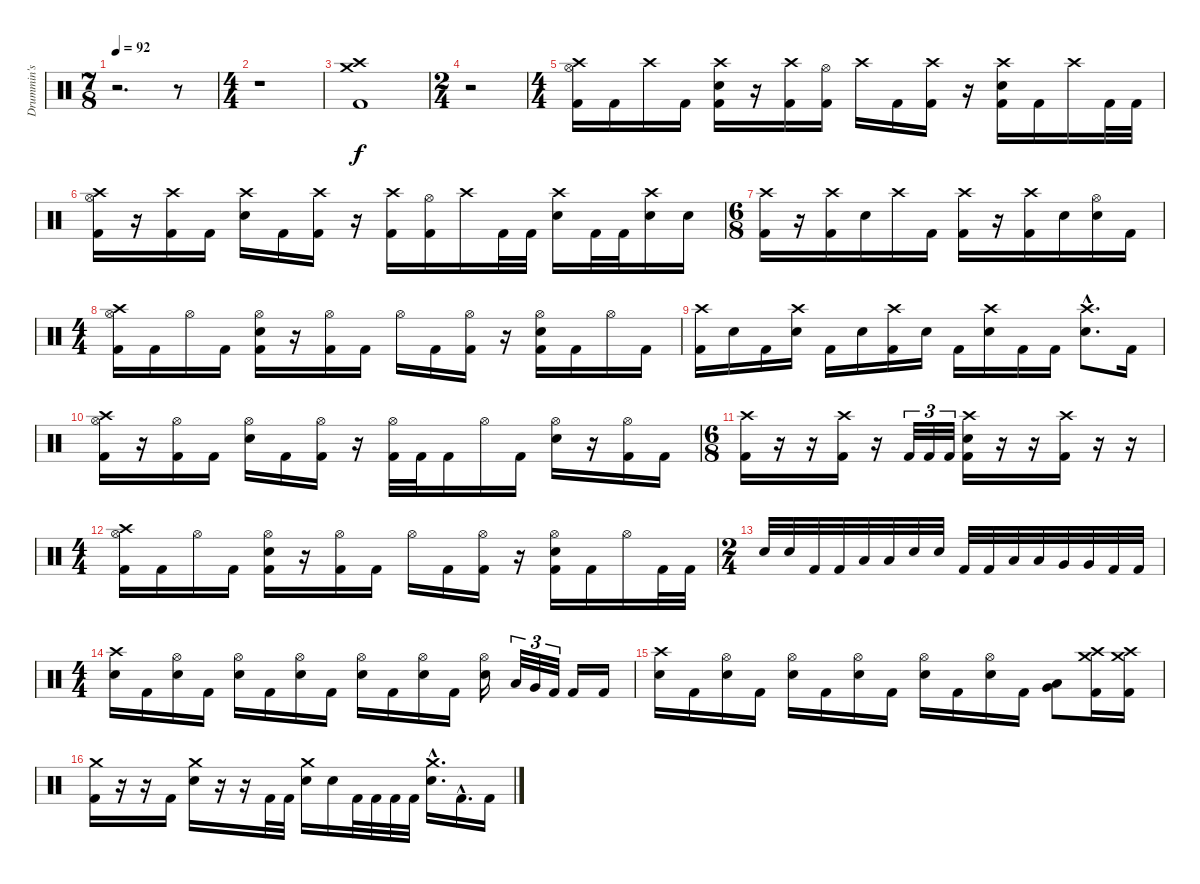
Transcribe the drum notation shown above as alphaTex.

\track ("Drummin's" "Drummin's") {instrument percussion}
\staff {score}
\articulation defaults
\ts (7 8)
\tempo 92
\clef neutral
\ks c
r.2{d dy f} r.8 |
\ts (4 4)
r.1 |
("Crash high (hit)" "Crash medium (hit)" "Kick (hit) 2").1 |
\ts (2 4)
r.2 |
\ts (4 4)
("Crash high (hit)" "Hi-Hat (open)" "Kick (hit) 2").16 "Kick (hit) 2".16 "Crash high (hit)".16 "Kick (hit) 2".16 ("Crash high (hit)" "Snare (hit) 2" "Kick (hit) 2").16 r.16 ("Crash high (hit)" "Kick (hit) 2").16 ("Hi-Hat (open)" "Kick (hit) 2").16 "Crash high (hit)".16 "Kick (hit) 2".16 ("Crash high (hit)" "Kick (hit) 2").16 r.16 ("Crash high (hit)" "Snare (hit) 2" "Kick (hit) 2").16 "Kick (hit) 2".16 "Crash high (hit)".16 "Kick (hit) 2".32 "Kick (hit) 2".32 |
("Crash high (hit)" "Hi-Hat (open)" "Kick (hit) 2").16 r.16 ("Crash high (hit)" "Kick (hit) 2").16 "Kick (hit) 2".16 ("Crash high (hit)" "Snare (hit) 2").16 "Kick (hit) 2".16 ("Crash high (hit)" "Kick (hit) 2").16 r.16 ("Crash high (hit)" "Kick (hit) 2").16 ("Hi-Hat (open)" "Kick (hit) 2").16 "Crash high (hit)".16 "Kick (hit) 2".32 "Kick (hit) 2".32 ("Crash high (hit)" "Snare (hit) 2").16 "Kick (hit) 2".32 "Kick (hit) 2".32 ("Crash high (hit)" "Snare (hit) 2").16 "Snare (hit) 2".16 |
\ts (6 8)
("Crash high (hit)" "Kick (hit) 2").16 r.16 ("Crash high (hit)" "Kick (hit) 2").16 "Snare (hit) 2".16 "Crash high (hit)".16 "Kick (hit) 2".16 ("Crash high (hit)" "Kick (hit) 2").16 r.16 ("Crash high (hit)" "Kick (hit) 2").16 "Snare (hit) 2".16 ("Hi-Hat (open)" "Snare (hit) 2").16 "Kick (hit) 2".16 |
\ts (4 4)
("Crash high (hit)" "Hi-Hat (open)" "Kick (hit) 2").16 "Kick (hit) 2".16 "Hi-Hat (open)".16 "Kick (hit) 2".16 ("Hi-Hat (open)" "Snare (hit) 2" "Kick (hit) 2").16 r.16 ("Hi-Hat (open)" "Kick (hit) 2").16 "Kick (hit) 2".16 "Hi-Hat (open)".16 "Kick (hit) 2".16 ("Hi-Hat (open)" "Kick (hit) 2").16 r.16 ("Hi-Hat (open)" "Snare (hit) 2" "Kick (hit) 2").16 "Kick (hit) 2".16 "Hi-Hat (open)".16 "Kick (hit) 2".16 |
("Crash high (hit)" "Kick (hit) 2").16 "Snare (hit) 2".16 "Kick (hit) 2".16 ("Crash high (hit)" "Snare (hit) 2").16 "Kick (hit) 2".16 "Snare (hit) 2".16 ("Crash high (hit)" "Kick (hit) 2").16 "Snare (hit) 2".16 "Kick (hit) 2".16 ("Crash high (hit)" "Snare (hit) 2").16 "Kick (hit) 2".16 "Kick (hit) 2".16 ("Crash high (hit)"{hac} "Snare (hit) 2"{hac}).8{d} "Kick (hit) 2".16 |
("Crash high (hit)" "Hi-Hat (open)" "Kick (hit) 2").16 r.16 ("Hi-Hat (open)" "Kick (hit) 2").16 "Kick (hit) 2".16 ("Hi-Hat (open)" "Snare (hit) 2").16 "Kick (hit) 2".16 ("Hi-Hat (open)" "Kick (hit) 2").16 r.16 ("Hi-Hat (open)" "Kick (hit) 2").32 "Kick (hit) 2".32 "Kick (hit) 2".16 "Hi-Hat (open)".16 "Kick (hit) 2".16 ("Hi-Hat (open)" "Snare (hit) 2").16 r.16 ("Hi-Hat (open)" "Kick (hit) 2").16 "Kick (hit) 2".16 |
\ts (6 8)
("Crash high (hit)" "Kick (hit) 2").16 r.16 r.16 ("Crash high (hit)" "Kick (hit) 2").16 r.16 "Kick (hit) 2".32{tu (3 2)} "Kick (hit) 2".32{tu (3 2)} "Kick (hit) 2".32{tu (3 2)} ("Crash high (hit)" "Snare (hit) 2" "Kick (hit) 2").16 r.16 r.16 ("Crash high (hit)" "Kick (hit) 2").16 r.16 r.16 |
\ts (4 4)
("Crash high (hit)" "Hi-Hat (open)" "Kick (hit) 2").16 "Kick (hit) 2".16 "Hi-Hat (open)".16 "Kick (hit) 2".16 ("Hi-Hat (open)" "Snare (hit) 2" "Kick (hit) 2").16 r.16 ("Hi-Hat (open)" "Kick (hit) 2").16 "Kick (hit) 2".16 "Hi-Hat (open)".16 "Kick (hit) 2".16 ("Hi-Hat (open)" "Kick (hit) 2").16 r.16 ("Hi-Hat (open)" "Snare (hit) 2" "Kick (hit) 2").16 "Kick (hit) 2".16 "Hi-Hat (open)".16 "Kick (hit) 2".32 "Kick (hit) 2".32 |
\ts (2 4)
"Snare (hit) 2".32 "Snare (hit) 2".32 "Kick (hit) 2".32 "Kick (hit) 2".32 "Low Tom (hit)".32 "Low Tom (hit)".32 "Snare (hit) 2".32 "Snare (hit) 2".32 "Kick (hit) 2".32 "Kick (hit) 2".32 "Low Tom (hit)".32 "Low Tom (hit)".32 "Very Low Tom (hit)".32 "Very Low Tom (hit)".32 "Kick (hit) 2".32 "Kick (hit) 2".32 |
\ts (4 4)
("Crash high (hit)" "Snare (hit) 2").16 "Kick (hit) 2".16 ("Hi-Hat (open)" "Snare (hit) 2").16 "Kick (hit) 2".16 ("Hi-Hat (open)" "Snare (hit) 2").16 "Kick (hit) 2".16 ("Hi-Hat (open)" "Snare (hit) 2").16 "Kick (hit) 2".16 ("Hi-Hat (open)" "Snare (hit) 2").16 "Kick (hit) 2".16 ("Hi-Hat (open)" "Snare (hit) 2").16 "Kick (hit) 2".16 ("Hi-Hat (open)" "Snare (hit) 2").16 "Low Tom (hit)".32{tu (3 2)} "Very Low Tom (hit)".32{tu (3 2)} "Kick (hit) 2".32{tu (3 2)} "Kick (hit) 2".16 "Kick (hit) 2".16 |
("Crash high (hit)" "Snare (hit) 2").16 "Kick (hit) 2".16 ("Hi-Hat (open)" "Snare (hit) 2").16 "Kick (hit) 2".16 ("Hi-Hat (open)" "Snare (hit) 2").16 "Kick (hit) 2".16 ("Hi-Hat (open)" "Snare (hit) 2").16 "Kick (hit) 2".16 ("Hi-Hat (open)" "Snare (hit) 2").16 "Kick (hit) 2".16 ("Hi-Hat (open)" "Snare (hit) 2").16 "Kick (hit) 2".16 ("Very Low Tom (hit)" "Low Floor Tom (hit)").8 ("Crash medium (hit)" "Crash high (hit)" "Kick (hit) 2").16 ("Crash medium (hit)" "Crash high (hit)" "Kick (hit) 2").16 |
("Crash medium (hit)" "Kick (hit) 2").16 r.16 r.16 "Kick (hit) 2".16 ("Crash medium (hit)" "Snare (hit) 2").16 r.16 r.16 "Kick (hit) 2".32 "Kick (hit) 2".32 ("Crash medium (hit)" "Snare (hit) 2").16 "Snare (hit) 2".16 "Kick (hit) 2".32 "Kick (hit) 2".32 "Kick (hit) 2".32 "Kick (hit) 2".32 ("Crash medium (hit)"{hac} "Snare (hit) 2"{hac}).16{d} "Kick (hit) 2"{hac}.16{d} "Kick (hit) 2".16
